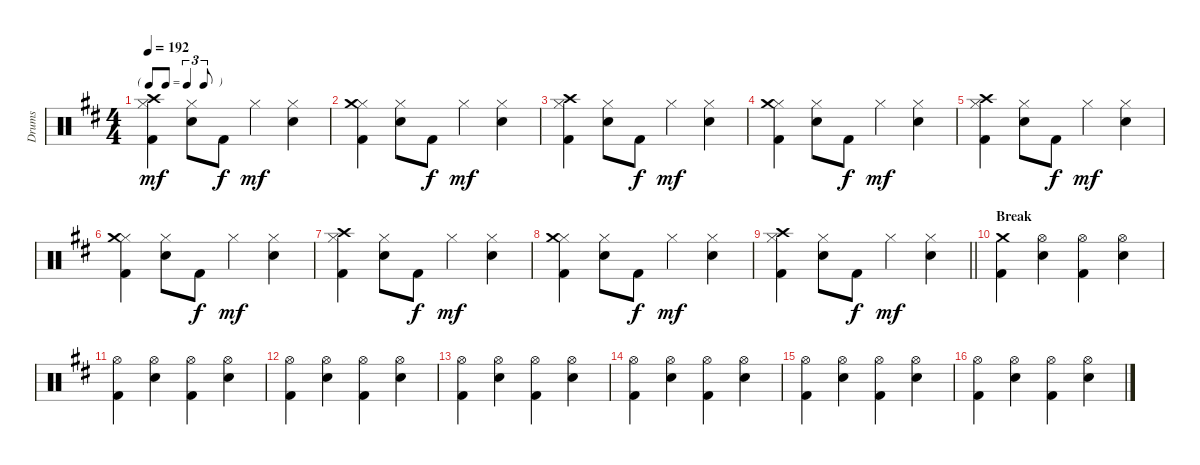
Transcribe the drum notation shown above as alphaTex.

\track ("Drums" "Drums") {instrument percussion}
\staff {score}
\articulation defaults
\ts (4 4)
\tf triplet8th
\tempo 192
\clef neutral
\ks bminor
("Hi-Hat (closed)" "Crash high (hit)" "Kick (hit) 2").4{dy mf} ("Hi-Hat (closed)" "Snare (hit) 2").8 "Kick (hit) 2".8{dy f} "Hi-Hat (closed)".4{dy mf} ("Hi-Hat (closed)" "Snare (hit) 2").4 |
("Hi-Hat (closed)" "Crash medium (hit)" "Kick (hit) 2").4 ("Hi-Hat (closed)" "Snare (hit) 2").8 "Kick (hit) 2".8{dy f} "Hi-Hat (closed)".4{dy mf} ("Hi-Hat (closed)" "Snare (hit) 2").4 |
("Hi-Hat (closed)" "Crash high (hit)" "Kick (hit) 2").4 ("Hi-Hat (closed)" "Snare (hit) 2").8 "Kick (hit) 2".8{dy f} "Hi-Hat (closed)".4{dy mf} ("Hi-Hat (closed)" "Snare (hit) 2").4 |
("Hi-Hat (closed)" "Crash medium (hit)" "Kick (hit) 2").4 ("Hi-Hat (closed)" "Snare (hit) 2").8 "Kick (hit) 2".8{dy f} "Hi-Hat (closed)".4{dy mf} ("Hi-Hat (closed)" "Snare (hit) 2").4 |
("Hi-Hat (closed)" "Crash high (hit)" "Kick (hit) 2").4 ("Hi-Hat (closed)" "Snare (hit) 2").8 "Kick (hit) 2".8{dy f} "Hi-Hat (closed)".4{dy mf} ("Hi-Hat (closed)" "Snare (hit) 2").4 |
("Hi-Hat (closed)" "Crash medium (hit)" "Kick (hit) 2").4 ("Hi-Hat (closed)" "Snare (hit) 2").8 "Kick (hit) 2".8{dy f} "Hi-Hat (closed)".4{dy mf} ("Hi-Hat (closed)" "Snare (hit) 2").4 |
("Hi-Hat (closed)" "Crash high (hit)" "Kick (hit) 2").4 ("Hi-Hat (closed)" "Snare (hit) 2").8 "Kick (hit) 2".8{dy f} "Hi-Hat (closed)".4{dy mf} ("Hi-Hat (closed)" "Snare (hit) 2").4 |
("Hi-Hat (closed)" "Crash medium (hit)" "Kick (hit) 2").4 ("Hi-Hat (closed)" "Snare (hit) 2").8 "Kick (hit) 2".8{dy f} "Hi-Hat (closed)".4{dy mf} ("Hi-Hat (closed)" "Snare (hit) 2").4 |
\barLineRight lightlight
("Hi-Hat (closed)" "Crash high (hit)" "Kick (hit) 2").4 ("Hi-Hat (closed)" "Snare (hit) 2").8 "Kick (hit) 2".8{dy f} "Hi-Hat (closed)".4{dy mf} ("Hi-Hat (closed)" "Snare (hit) 2").4 |
\section ("" "Break")
("Crash medium (hit)" "Kick (hit) 2").4 ("Hi-Hat (open)" "Snare (hit) 2").4 ("Hi-Hat (open)" "Kick (hit) 2").4 ("Hi-Hat (open)" "Snare (hit) 2").4 |
("Hi-Hat (open)" "Kick (hit) 2").4 ("Hi-Hat (open)" "Snare (hit) 2").4 ("Hi-Hat (open)" "Kick (hit) 2").4 ("Hi-Hat (open)" "Snare (hit) 2").4 |
("Hi-Hat (open)" "Kick (hit) 2").4 ("Hi-Hat (open)" "Snare (hit) 2").4 ("Hi-Hat (open)" "Kick (hit) 2").4 ("Hi-Hat (open)" "Snare (hit) 2").4 |
("Hi-Hat (open)" "Kick (hit) 2").4 ("Hi-Hat (open)" "Snare (hit) 2").4 ("Hi-Hat (open)" "Kick (hit) 2").4 ("Hi-Hat (open)" "Snare (hit) 2").4 |
("Hi-Hat (open)" "Kick (hit) 2").4 ("Hi-Hat (open)" "Snare (hit) 2").4 ("Hi-Hat (open)" "Kick (hit) 2").4 ("Hi-Hat (open)" "Snare (hit) 2").4 |
("Hi-Hat (open)" "Kick (hit) 2").4 ("Hi-Hat (open)" "Snare (hit) 2").4 ("Hi-Hat (open)" "Kick (hit) 2").4 ("Hi-Hat (open)" "Snare (hit) 2").4 |
("Hi-Hat (open)" "Kick (hit) 2").4 ("Hi-Hat (open)" "Snare (hit) 2").4 ("Hi-Hat (open)" "Kick (hit) 2").4 ("Hi-Hat (open)" "Snare (hit) 2").4
